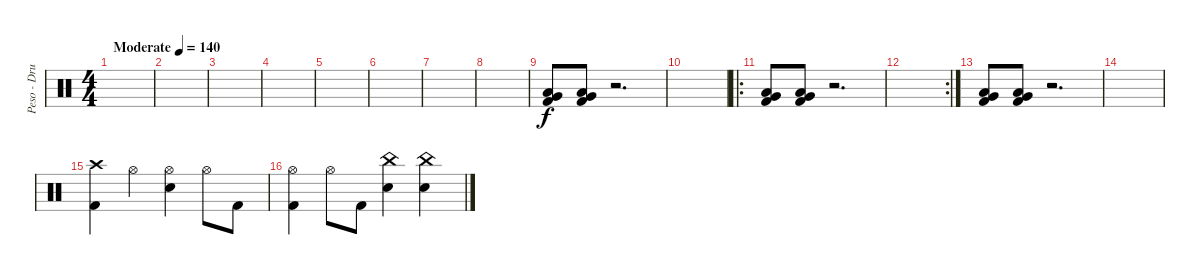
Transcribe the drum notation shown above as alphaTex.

\track ("Peso - Drums" "Peso - Dru") {instrument percussion}
\staff {score}
\articulation defaults
\ts (4 4)
\tempo (140 "Moderate")
\clef neutral
\ks c
|
|
|
|
|
|
|
|
("Very Low Tom (hit)" "Low Floor Tom (hit)" "Kick (hit) 2").8 ("Very Low Tom (hit)" "Low Floor Tom (hit)" "Kick (hit) 2").8 r.2{d} |
|
\ro
("Very Low Tom (hit)" "Low Floor Tom (hit)" "Kick (hit) 2").8 ("Very Low Tom (hit)" "Low Floor Tom (hit)" "Kick (hit) 2").8 r.2{d} |
\rc 2
|
("Very Low Tom (hit)" "Low Floor Tom (hit)" "Kick (hit) 2").8 ("Very Low Tom (hit)" "Low Floor Tom (hit)" "Kick (hit) 2").8 r.2{d} |
|
("Crash high (hit)" "Kick (hit) 2").4 "Hi-Hat (open)".4 ("Hi-Hat (open)" "Electric Snare (hit)").4 "Hi-Hat (open)".8 "Kick (hit) 2".8 |
("Hi-Hat (open)" "Kick (hit) 2").4 "Hi-Hat (open)".8 "Kick (hit) 2".8 ("China (hit)" "Electric Snare (hit)").4 ("China (hit)" "Electric Snare (hit)").4
